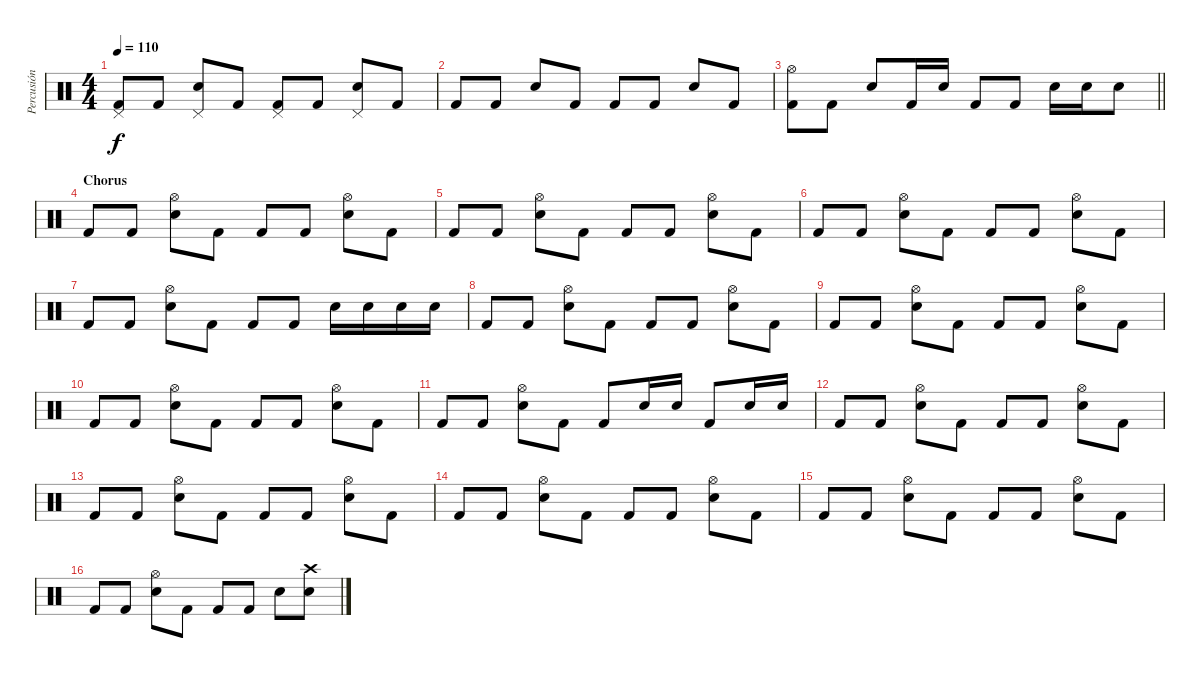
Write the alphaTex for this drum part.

\track ("Percusión" "Percusión") {instrument percussion}
\staff {score}
\articulation defaults
\ts (4 4)
\tempo 110
\clef neutral
\ks c
("Pedal Hi-Hat (hit)" "Kick (hit) 2").8{dy f} "Kick (hit) 2".8 ("Pedal Hi-Hat (hit)" "Snare (hit) 2").8 "Kick (hit) 2".8 ("Pedal Hi-Hat (hit)" "Kick (hit) 2").8 "Kick (hit) 2".8 ("Pedal Hi-Hat (hit)" "Snare (hit) 2").8 "Kick (hit) 2".8 |
"Kick (hit) 2".8 "Kick (hit) 2".8 "Snare (hit) 2".8 "Kick (hit) 2".8 "Kick (hit) 2".8 "Kick (hit) 2".8 "Snare (hit) 2".8 "Kick (hit) 2".8 |
\barLineRight lightlight
("Hi-Hat (open)" "Kick (hit) 2").8 "Kick (hit) 2".8 "Snare (hit) 2".8 "Kick (hit) 2".16 "Snare (hit) 2".16 "Kick (hit) 2".8 "Kick (hit) 2".8 "Snare (hit) 2".16 "Snare (hit) 2".16 "Snare (hit) 2".8 |
\section ("" "Chorus")
"Kick (hit) 2".8 "Kick (hit) 2".8 ("Hi-Hat (open)" "Snare (hit) 2").8 "Kick (hit) 2".8 "Kick (hit) 2".8 "Kick (hit) 2".8 ("Hi-Hat (open)" "Snare (hit) 2").8 "Kick (hit) 2".8 |
"Kick (hit) 2".8 "Kick (hit) 2".8 ("Hi-Hat (open)" "Snare (hit) 2").8 "Kick (hit) 2".8 "Kick (hit) 2".8 "Kick (hit) 2".8 ("Hi-Hat (open)" "Snare (hit) 2").8 "Kick (hit) 2".8 |
"Kick (hit) 2".8 "Kick (hit) 2".8 ("Hi-Hat (open)" "Snare (hit) 2").8 "Kick (hit) 2".8 "Kick (hit) 2".8 "Kick (hit) 2".8 ("Hi-Hat (open)" "Snare (hit) 2").8 "Kick (hit) 2".8 |
"Kick (hit) 2".8 "Kick (hit) 2".8 ("Hi-Hat (open)" "Snare (hit) 2").8 "Kick (hit) 2".8 "Kick (hit) 2".8 "Kick (hit) 2".8 "Snare (hit) 2".16 "Snare (hit) 2".16 "Snare (hit) 2".16 "Snare (hit) 2".16 |
"Kick (hit) 2".8 "Kick (hit) 2".8 ("Hi-Hat (open)" "Snare (hit) 2").8 "Kick (hit) 2".8 "Kick (hit) 2".8 "Kick (hit) 2".8 ("Hi-Hat (open)" "Snare (hit) 2").8 "Kick (hit) 2".8 |
"Kick (hit) 2".8 "Kick (hit) 2".8 ("Hi-Hat (open)" "Snare (hit) 2").8 "Kick (hit) 2".8 "Kick (hit) 2".8 "Kick (hit) 2".8 ("Hi-Hat (open)" "Snare (hit) 2").8 "Kick (hit) 2".8 |
"Kick (hit) 2".8 "Kick (hit) 2".8 ("Hi-Hat (open)" "Snare (hit) 2").8 "Kick (hit) 2".8 "Kick (hit) 2".8 "Kick (hit) 2".8 ("Hi-Hat (open)" "Snare (hit) 2").8 "Kick (hit) 2".8 |
"Kick (hit) 2".8 "Kick (hit) 2".8 ("Hi-Hat (open)" "Snare (hit) 2").8 "Kick (hit) 2".8 "Kick (hit) 2".8 "Snare (hit) 2".16 "Snare (hit) 2".16 "Kick (hit) 2".8 "Snare (hit) 2".16 "Snare (hit) 2".16 |
"Kick (hit) 2".8 "Kick (hit) 2".8 ("Hi-Hat (open)" "Snare (hit) 2").8 "Kick (hit) 2".8 "Kick (hit) 2".8 "Kick (hit) 2".8 ("Hi-Hat (open)" "Snare (hit) 2").8 "Kick (hit) 2".8 |
"Kick (hit) 2".8 "Kick (hit) 2".8 ("Hi-Hat (open)" "Snare (hit) 2").8 "Kick (hit) 2".8 "Kick (hit) 2".8 "Kick (hit) 2".8 ("Hi-Hat (open)" "Snare (hit) 2").8 "Kick (hit) 2".8 |
"Kick (hit) 2".8 "Kick (hit) 2".8 ("Hi-Hat (open)" "Snare (hit) 2").8 "Kick (hit) 2".8 "Kick (hit) 2".8 "Kick (hit) 2".8 ("Hi-Hat (open)" "Snare (hit) 2").8 "Kick (hit) 2".8 |
"Kick (hit) 2".8 "Kick (hit) 2".8 ("Hi-Hat (open)" "Snare (hit) 2").8 "Kick (hit) 2".8 "Kick (hit) 2".8 "Kick (hit) 2".8 ("Hi-Hat (open)" "Snare (hit) 2").8 "Kick (hit) 2".8 |
"Kick (hit) 2".8 "Kick (hit) 2".8 ("Hi-Hat (open)" "Snare (hit) 2").8 "Kick (hit) 2".8 "Kick (hit) 2".8 "Kick (hit) 2".8 "Snare (hit) 2".8 ("Crash high (hit)" "Electric Snare (hit)").8
